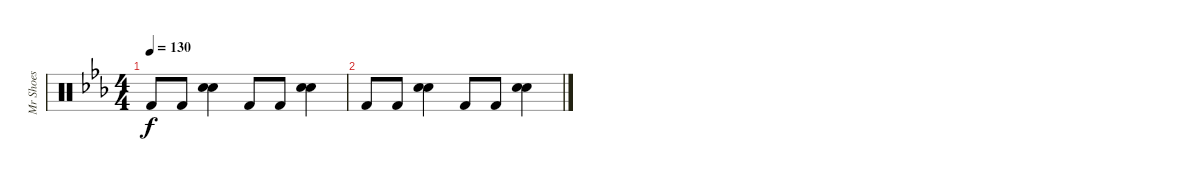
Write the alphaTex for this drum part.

\track ("Mr Shoes " "Mr Shoes ") {instrument percussion}
\staff {score}
\articulation defaults
\ts (4 4)
\tempo 130
\clef neutral
\ks eb "Kick (hit) 2".8{dy f} "Kick (hit) 2".8
("Electric Snare (hit)" "Snare (hit) 2").4 "Kick (hit) 2".8 "Kick (hit) 2".8 ("Electric Snare (hit)" "Snare (hit) 2").4 |
"Kick (hit) 2".8 "Kick (hit) 2".8 ("Electric Snare (hit)" "Snare (hit) 2").4 "Kick (hit) 2".8 "Kick (hit) 2".8 ("Electric Snare (hit)" "Snare (hit) 2").4
